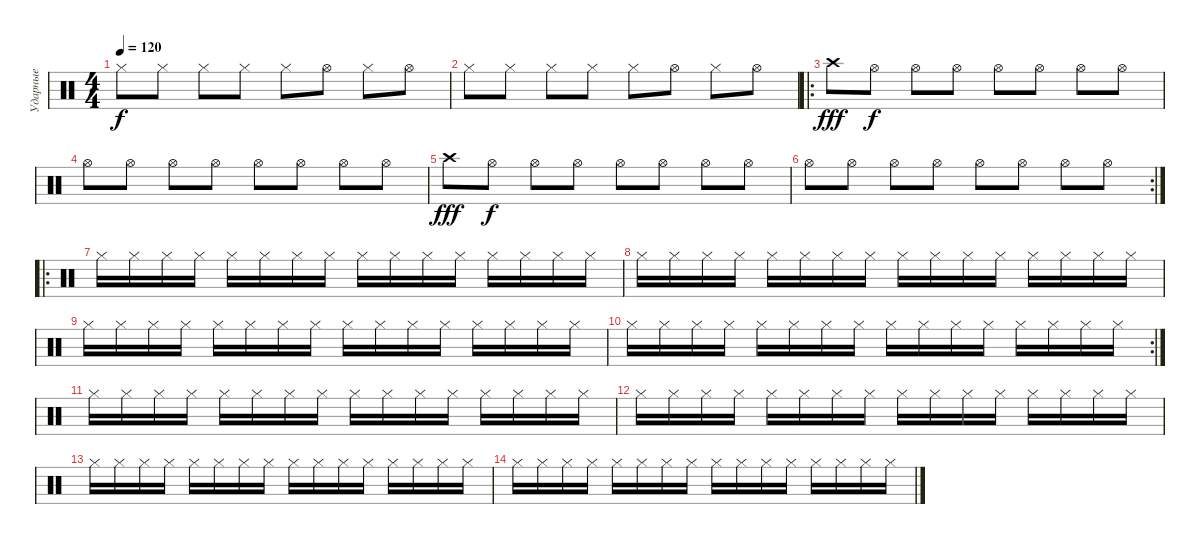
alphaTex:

\track ("Ударные" "Ударные") {instrument percussion}
\staff {score}
\articulation defaults
\ts (4 4)
\tempo 120
\clef neutral
\ks c "Hi-Hat (closed)".8{dy f} "Hi-Hat (closed)".8 "Hi-Hat (closed)".8 "Hi-Hat (closed)".8 "Hi-Hat (closed)".8 "Hi-Hat (open)".8 "Hi-Hat (closed)".8 "Hi-Hat (open)".8
|
"Hi-Hat (closed)".8 "Hi-Hat (closed)".8 "Hi-Hat (closed)".8 "Hi-Hat (closed)".8 "Hi-Hat (closed)".8 "Hi-Hat (open)".8 "Hi-Hat (closed)".8 "Hi-Hat (open)".8 |
\ro "Crash high (hit)".8{dy fff volume 16} "Hi-Hat (open)".8{dy f} "Hi-Hat (open)".8 "Hi-Hat (open)".8 "Hi-Hat (open)".8 "Hi-Hat (open)".8 "Hi-Hat (open)".8 "Hi-Hat (open)".8
|
"Hi-Hat (open)".8 "Hi-Hat (open)".8 "Hi-Hat (open)".8 "Hi-Hat (open)".8 "Hi-Hat (open)".8 "Hi-Hat (open)".8 "Hi-Hat (open)".8 "Hi-Hat (open)".8 |
"Crash high (hit)".8{dy fff volume 16} "Hi-Hat (open)".8{dy f} "Hi-Hat (open)".8 "Hi-Hat (open)".8 "Hi-Hat (open)".8 "Hi-Hat (open)".8 "Hi-Hat (open)".8 "Hi-Hat (open)".8 |
\rc 2 "Hi-Hat (open)".8 "Hi-Hat (open)".8 "Hi-Hat (open)".8 "Hi-Hat (open)".8 "Hi-Hat (open)".8 "Hi-Hat (open)".8 "Hi-Hat (open)".8 "Hi-Hat (open)".8
|
\ro "Hi-Hat (closed)".16 "Hi-Hat (closed)".16 "Hi-Hat (closed)".16 "Hi-Hat (closed)".16 "Hi-Hat (closed)".16 "Hi-Hat (closed)".16 "Hi-Hat (closed)".16 "Hi-Hat (closed)".16 "Hi-Hat (closed)".16 "Hi-Hat (closed)".16 "Hi-Hat (closed)".16 "Hi-Hat (closed)".16 "Hi-Hat (closed)".16 "Hi-Hat (closed)".16 "Hi-Hat (closed)".16 "Hi-Hat (closed)".16
|
"Hi-Hat (closed)".16 "Hi-Hat (closed)".16 "Hi-Hat (closed)".16 "Hi-Hat (closed)".16 "Hi-Hat (closed)".16 "Hi-Hat (closed)".16 "Hi-Hat (closed)".16 "Hi-Hat (closed)".16 "Hi-Hat (closed)".16 "Hi-Hat (closed)".16 "Hi-Hat (closed)".16 "Hi-Hat (closed)".16 "Hi-Hat (closed)".16 "Hi-Hat (closed)".16 "Hi-Hat (closed)".16 "Hi-Hat (closed)".16 |
"Hi-Hat (closed)".16 "Hi-Hat (closed)".16 "Hi-Hat (closed)".16 "Hi-Hat (closed)".16 "Hi-Hat (closed)".16 "Hi-Hat (closed)".16 "Hi-Hat (closed)".16 "Hi-Hat (closed)".16 "Hi-Hat (closed)".16 "Hi-Hat (closed)".16 "Hi-Hat (closed)".16 "Hi-Hat (closed)".16 "Hi-Hat (closed)".16 "Hi-Hat (closed)".16 "Hi-Hat (closed)".16 "Hi-Hat (closed)".16 |
\rc 2 "Hi-Hat (closed)".16 "Hi-Hat (closed)".16 "Hi-Hat (closed)".16 "Hi-Hat (closed)".16 "Hi-Hat (closed)".16 "Hi-Hat (closed)".16 "Hi-Hat (closed)".16 "Hi-Hat (closed)".16 "Hi-Hat (closed)".16 "Hi-Hat (closed)".16 "Hi-Hat (closed)".16 "Hi-Hat (closed)".16 "Hi-Hat (closed)".16 "Hi-Hat (closed)".16 "Hi-Hat (closed)".16 "Hi-Hat (closed)".16
|
"Hi-Hat (closed)".16 "Hi-Hat (closed)".16 "Hi-Hat (closed)".16 "Hi-Hat (closed)".16 "Hi-Hat (closed)".16 "Hi-Hat (closed)".16 "Hi-Hat (closed)".16 "Hi-Hat (closed)".16 "Hi-Hat (closed)".16 "Hi-Hat (closed)".16 "Hi-Hat (closed)".16 "Hi-Hat (closed)".16 "Hi-Hat (closed)".16 "Hi-Hat (closed)".16 "Hi-Hat (closed)".16 "Hi-Hat (closed)".16 |
"Hi-Hat (closed)".16 "Hi-Hat (closed)".16 "Hi-Hat (closed)".16 "Hi-Hat (closed)".16 "Hi-Hat (closed)".16 "Hi-Hat (closed)".16 "Hi-Hat (closed)".16 "Hi-Hat (closed)".16 "Hi-Hat (closed)".16 "Hi-Hat (closed)".16 "Hi-Hat (closed)".16 "Hi-Hat (closed)".16 "Hi-Hat (closed)".16 "Hi-Hat (closed)".16 "Hi-Hat (closed)".16 "Hi-Hat (closed)".16 |
"Hi-Hat (closed)".16 "Hi-Hat (closed)".16 "Hi-Hat (closed)".16 "Hi-Hat (closed)".16 "Hi-Hat (closed)".16 "Hi-Hat (closed)".16 "Hi-Hat (closed)".16 "Hi-Hat (closed)".16 "Hi-Hat (closed)".16 "Hi-Hat (closed)".16 "Hi-Hat (closed)".16 "Hi-Hat (closed)".16 "Hi-Hat (closed)".16 "Hi-Hat (closed)".16 "Hi-Hat (closed)".16 "Hi-Hat (closed)".16 |
"Hi-Hat (closed)".16 "Hi-Hat (closed)".16 "Hi-Hat (closed)".16 "Hi-Hat (closed)".16 "Hi-Hat (closed)".16 "Hi-Hat (closed)".16 "Hi-Hat (closed)".16 "Hi-Hat (closed)".16 "Hi-Hat (closed)".16 "Hi-Hat (closed)".16 "Hi-Hat (closed)".16 "Hi-Hat (closed)".16 "Hi-Hat (closed)".16 "Hi-Hat (closed)".16 "Hi-Hat (closed)".16 "Hi-Hat (closed)".16
